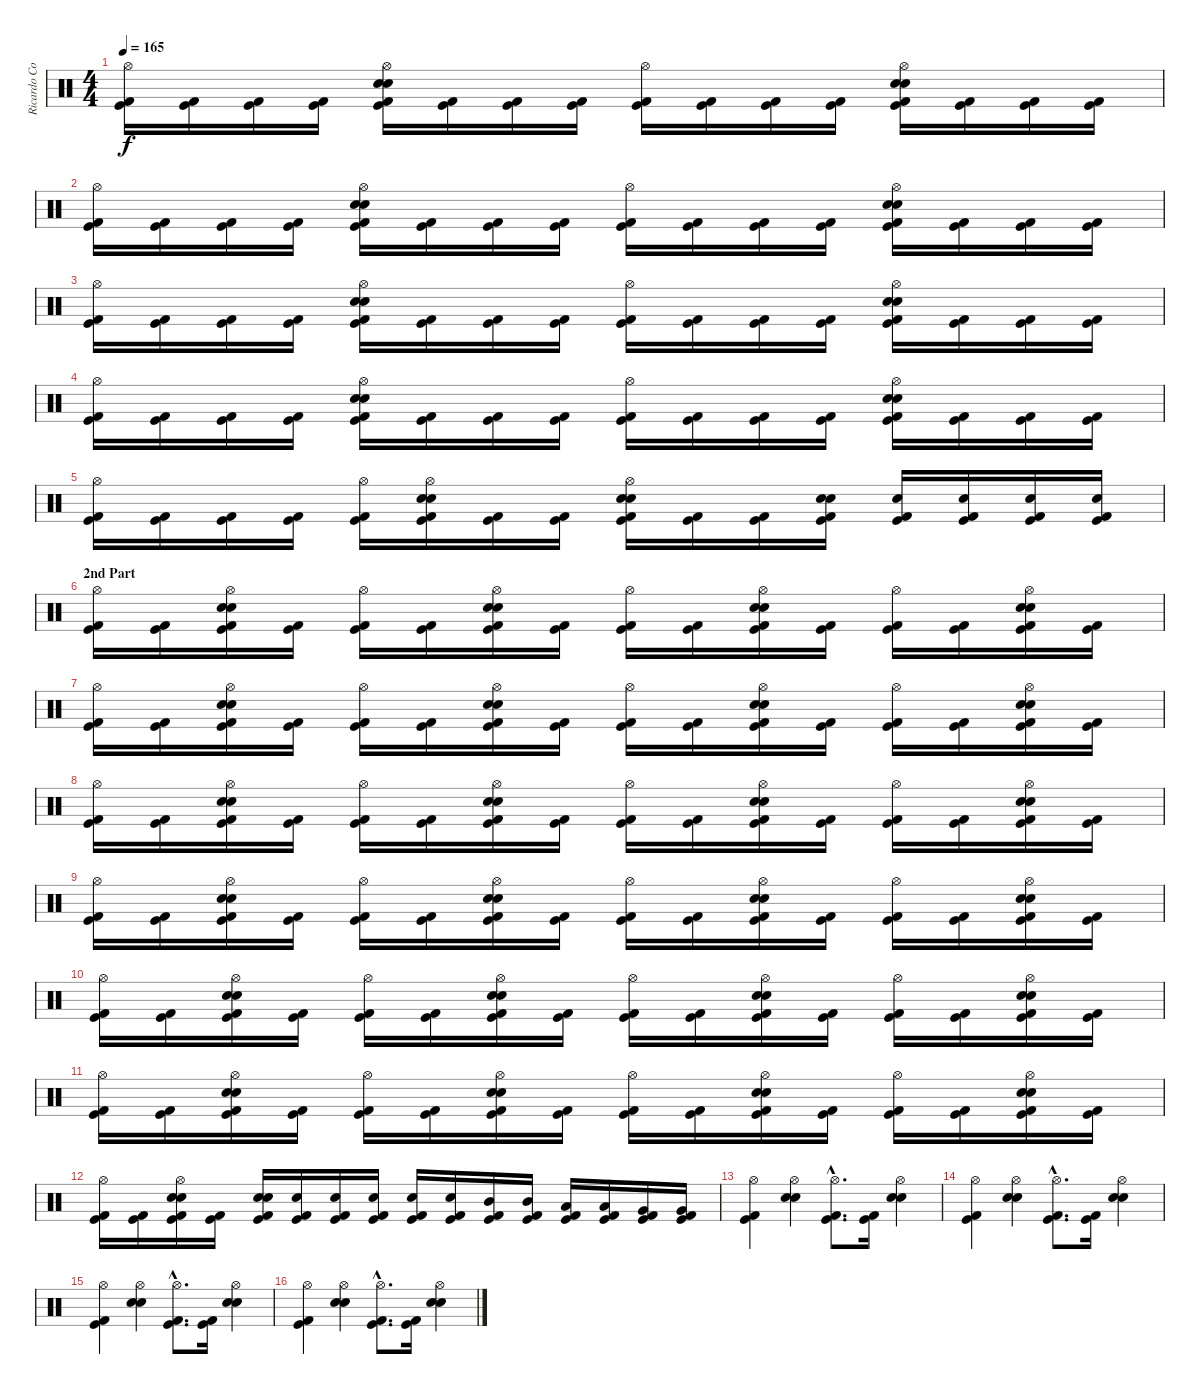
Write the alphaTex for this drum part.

\track ("Ricardo Confessori" "Ricardo Co") {instrument percussion}
\staff {score}
\articulation defaults
\ts (4 4)
\tempo 165
\clef neutral
\ks c
("Hi-Hat (open)" "Kick (hit) 2" "Kick (hit)").16{dy f} ("Kick (hit) 2" "Kick (hit)").16 ("Kick (hit) 2" "Kick (hit)").16 ("Kick (hit) 2" "Kick (hit)").16 ("Hi-Hat (open)" "Electric Snare (hit)" "Snare (hit) 2" "Kick (hit) 2" "Kick (hit)").16 ("Kick (hit) 2" "Kick (hit)").16 ("Kick (hit) 2" "Kick (hit)").16 ("Kick (hit) 2" "Kick (hit)").16 ("Hi-Hat (open)" "Kick (hit) 2" "Kick (hit)").16 ("Kick (hit) 2" "Kick (hit)").16 ("Kick (hit) 2" "Kick (hit)").16 ("Kick (hit) 2" "Kick (hit)").16 ("Hi-Hat (open)" "Electric Snare (hit)" "Snare (hit) 2" "Kick (hit) 2" "Kick (hit)").16 ("Kick (hit) 2" "Kick (hit)").16 ("Kick (hit) 2" "Kick (hit)").16 ("Kick (hit) 2" "Kick (hit)").16 |
("Hi-Hat (open)" "Kick (hit) 2" "Kick (hit)").16 ("Kick (hit) 2" "Kick (hit)").16 ("Kick (hit) 2" "Kick (hit)").16 ("Kick (hit) 2" "Kick (hit)").16 ("Hi-Hat (open)" "Electric Snare (hit)" "Snare (hit) 2" "Kick (hit) 2" "Kick (hit)").16 ("Kick (hit) 2" "Kick (hit)").16 ("Kick (hit) 2" "Kick (hit)").16 ("Kick (hit) 2" "Kick (hit)").16 ("Hi-Hat (open)" "Kick (hit) 2" "Kick (hit)").16 ("Kick (hit) 2" "Kick (hit)").16 ("Kick (hit) 2" "Kick (hit)").16 ("Kick (hit) 2" "Kick (hit)").16 ("Hi-Hat (open)" "Electric Snare (hit)" "Snare (hit) 2" "Kick (hit) 2" "Kick (hit)").16 ("Kick (hit) 2" "Kick (hit)").16 ("Kick (hit) 2" "Kick (hit)").16 ("Kick (hit) 2" "Kick (hit)").16 |
("Hi-Hat (open)" "Kick (hit) 2" "Kick (hit)").16 ("Kick (hit) 2" "Kick (hit)").16 ("Kick (hit) 2" "Kick (hit)").16 ("Kick (hit) 2" "Kick (hit)").16 ("Hi-Hat (open)" "Electric Snare (hit)" "Snare (hit) 2" "Kick (hit) 2" "Kick (hit)").16 ("Kick (hit) 2" "Kick (hit)").16 ("Kick (hit) 2" "Kick (hit)").16 ("Kick (hit) 2" "Kick (hit)").16 ("Hi-Hat (open)" "Kick (hit) 2" "Kick (hit)").16 ("Kick (hit) 2" "Kick (hit)").16 ("Kick (hit) 2" "Kick (hit)").16 ("Kick (hit) 2" "Kick (hit)").16 ("Hi-Hat (open)" "Electric Snare (hit)" "Snare (hit) 2" "Kick (hit) 2" "Kick (hit)").16 ("Kick (hit) 2" "Kick (hit)").16 ("Kick (hit) 2" "Kick (hit)").16 ("Kick (hit) 2" "Kick (hit)").16 |
("Hi-Hat (open)" "Kick (hit) 2" "Kick (hit)").16 ("Kick (hit) 2" "Kick (hit)").16 ("Kick (hit) 2" "Kick (hit)").16 ("Kick (hit) 2" "Kick (hit)").16 ("Hi-Hat (open)" "Electric Snare (hit)" "Snare (hit) 2" "Kick (hit) 2" "Kick (hit)").16 ("Kick (hit) 2" "Kick (hit)").16 ("Kick (hit) 2" "Kick (hit)").16 ("Kick (hit) 2" "Kick (hit)").16 ("Hi-Hat (open)" "Kick (hit) 2" "Kick (hit)").16 ("Kick (hit) 2" "Kick (hit)").16 ("Kick (hit) 2" "Kick (hit)").16 ("Kick (hit) 2" "Kick (hit)").16 ("Hi-Hat (open)" "Electric Snare (hit)" "Snare (hit) 2" "Kick (hit) 2" "Kick (hit)").16 ("Kick (hit) 2" "Kick (hit)").16 ("Kick (hit) 2" "Kick (hit)").16 ("Kick (hit) 2" "Kick (hit)").16 |
("Hi-Hat (open)" "Kick (hit) 2" "Kick (hit)").16 ("Kick (hit) 2" "Kick (hit)").16 ("Kick (hit) 2" "Kick (hit)").16 ("Kick (hit) 2" "Kick (hit)").16 ("Hi-Hat (open)" "Kick (hit) 2" "Kick (hit)").16 ("Hi-Hat (open)" "Electric Snare (hit)" "Snare (hit) 2" "Kick (hit) 2" "Kick (hit)").16 ("Kick (hit) 2" "Kick (hit)").16 ("Kick (hit) 2" "Kick (hit)").16 ("Hi-Hat (open)" "Electric Snare (hit)" "Snare (hit) 2" "Kick (hit) 2" "Kick (hit)").16 ("Kick (hit) 2" "Kick (hit)").16 ("Kick (hit) 2" "Kick (hit)").16 ("Electric Snare (hit)" "Snare (hit) 2" "Kick (hit) 2" "Kick (hit)").16 ("Electric Snare (hit)" "Kick (hit) 2" "Kick (hit)").16 ("Electric Snare (hit)" "Kick (hit) 2" "Kick (hit)").16 ("Electric Snare (hit)" "Kick (hit) 2" "Kick (hit)").16 ("Electric Snare (hit)" "Kick (hit) 2" "Kick (hit)").16 |
\section ("" "2nd Part")
("Hi-Hat (open)" "Kick (hit) 2" "Kick (hit)").16 ("Kick (hit) 2" "Kick (hit)").16 ("Hi-Hat (open)" "Electric Snare (hit)" "Snare (hit) 2" "Kick (hit) 2" "Kick (hit)").16 ("Kick (hit) 2" "Kick (hit)").16 ("Hi-Hat (open)" "Kick (hit) 2" "Kick (hit)").16 ("Kick (hit) 2" "Kick (hit)").16 ("Hi-Hat (open)" "Electric Snare (hit)" "Snare (hit) 2" "Kick (hit) 2" "Kick (hit)").16 ("Kick (hit) 2" "Kick (hit)").16 ("Hi-Hat (open)" "Kick (hit) 2" "Kick (hit)").16 ("Kick (hit) 2" "Kick (hit)").16 ("Hi-Hat (open)" "Electric Snare (hit)" "Snare (hit) 2" "Kick (hit) 2" "Kick (hit)").16 ("Kick (hit) 2" "Kick (hit)").16 ("Hi-Hat (open)" "Kick (hit) 2" "Kick (hit)").16 ("Kick (hit) 2" "Kick (hit)").16 ("Hi-Hat (open)" "Electric Snare (hit)" "Snare (hit) 2" "Kick (hit) 2" "Kick (hit)").16 ("Kick (hit) 2" "Kick (hit)").16 |
("Hi-Hat (open)" "Kick (hit) 2" "Kick (hit)").16 ("Kick (hit) 2" "Kick (hit)").16 ("Hi-Hat (open)" "Electric Snare (hit)" "Snare (hit) 2" "Kick (hit) 2" "Kick (hit)").16 ("Kick (hit) 2" "Kick (hit)").16 ("Hi-Hat (open)" "Kick (hit) 2" "Kick (hit)").16 ("Kick (hit) 2" "Kick (hit)").16 ("Hi-Hat (open)" "Electric Snare (hit)" "Snare (hit) 2" "Kick (hit) 2" "Kick (hit)").16 ("Kick (hit) 2" "Kick (hit)").16 ("Hi-Hat (open)" "Kick (hit) 2" "Kick (hit)").16 ("Kick (hit) 2" "Kick (hit)").16 ("Hi-Hat (open)" "Electric Snare (hit)" "Snare (hit) 2" "Kick (hit) 2" "Kick (hit)").16 ("Kick (hit) 2" "Kick (hit)").16 ("Hi-Hat (open)" "Kick (hit) 2" "Kick (hit)").16 ("Kick (hit) 2" "Kick (hit)").16 ("Hi-Hat (open)" "Electric Snare (hit)" "Snare (hit) 2" "Kick (hit) 2" "Kick (hit)").16 ("Kick (hit) 2" "Kick (hit)").16 |
("Hi-Hat (open)" "Kick (hit) 2" "Kick (hit)").16 ("Kick (hit) 2" "Kick (hit)").16 ("Hi-Hat (open)" "Electric Snare (hit)" "Snare (hit) 2" "Kick (hit) 2" "Kick (hit)").16 ("Kick (hit) 2" "Kick (hit)").16 ("Hi-Hat (open)" "Kick (hit) 2" "Kick (hit)").16 ("Kick (hit) 2" "Kick (hit)").16 ("Hi-Hat (open)" "Electric Snare (hit)" "Snare (hit) 2" "Kick (hit) 2" "Kick (hit)").16 ("Kick (hit) 2" "Kick (hit)").16 ("Hi-Hat (open)" "Kick (hit) 2" "Kick (hit)").16 ("Kick (hit) 2" "Kick (hit)").16 ("Hi-Hat (open)" "Electric Snare (hit)" "Snare (hit) 2" "Kick (hit) 2" "Kick (hit)").16 ("Kick (hit) 2" "Kick (hit)").16 ("Hi-Hat (open)" "Kick (hit) 2" "Kick (hit)").16 ("Kick (hit) 2" "Kick (hit)").16 ("Hi-Hat (open)" "Electric Snare (hit)" "Snare (hit) 2" "Kick (hit) 2" "Kick (hit)").16 ("Kick (hit) 2" "Kick (hit)").16 |
("Hi-Hat (open)" "Kick (hit) 2" "Kick (hit)").16 ("Kick (hit) 2" "Kick (hit)").16 ("Hi-Hat (open)" "Electric Snare (hit)" "Snare (hit) 2" "Kick (hit) 2" "Kick (hit)").16 ("Kick (hit) 2" "Kick (hit)").16 ("Hi-Hat (open)" "Kick (hit) 2" "Kick (hit)").16 ("Kick (hit) 2" "Kick (hit)").16 ("Hi-Hat (open)" "Electric Snare (hit)" "Snare (hit) 2" "Kick (hit) 2" "Kick (hit)").16 ("Kick (hit) 2" "Kick (hit)").16 ("Hi-Hat (open)" "Kick (hit) 2" "Kick (hit)").16 ("Kick (hit) 2" "Kick (hit)").16 ("Hi-Hat (open)" "Electric Snare (hit)" "Snare (hit) 2" "Kick (hit) 2" "Kick (hit)").16 ("Kick (hit) 2" "Kick (hit)").16 ("Hi-Hat (open)" "Kick (hit) 2" "Kick (hit)").16 ("Kick (hit) 2" "Kick (hit)").16 ("Hi-Hat (open)" "Electric Snare (hit)" "Snare (hit) 2" "Kick (hit) 2" "Kick (hit)").16 ("Kick (hit) 2" "Kick (hit)").16 |
("Hi-Hat (open)" "Kick (hit) 2" "Kick (hit)").16 ("Kick (hit) 2" "Kick (hit)").16 ("Hi-Hat (open)" "Electric Snare (hit)" "Snare (hit) 2" "Kick (hit) 2" "Kick (hit)").16 ("Kick (hit) 2" "Kick (hit)").16 ("Hi-Hat (open)" "Kick (hit) 2" "Kick (hit)").16 ("Kick (hit) 2" "Kick (hit)").16 ("Hi-Hat (open)" "Electric Snare (hit)" "Snare (hit) 2" "Kick (hit) 2" "Kick (hit)").16 ("Kick (hit) 2" "Kick (hit)").16 ("Hi-Hat (open)" "Kick (hit) 2" "Kick (hit)").16 ("Kick (hit) 2" "Kick (hit)").16 ("Hi-Hat (open)" "Electric Snare (hit)" "Snare (hit) 2" "Kick (hit) 2" "Kick (hit)").16 ("Kick (hit) 2" "Kick (hit)").16 ("Hi-Hat (open)" "Kick (hit) 2" "Kick (hit)").16 ("Kick (hit) 2" "Kick (hit)").16 ("Hi-Hat (open)" "Electric Snare (hit)" "Snare (hit) 2" "Kick (hit) 2" "Kick (hit)").16 ("Kick (hit) 2" "Kick (hit)").16 |
("Hi-Hat (open)" "Kick (hit) 2" "Kick (hit)").16 ("Kick (hit) 2" "Kick (hit)").16 ("Hi-Hat (open)" "Electric Snare (hit)" "Snare (hit) 2" "Kick (hit) 2" "Kick (hit)").16 ("Kick (hit) 2" "Kick (hit)").16 ("Hi-Hat (open)" "Kick (hit) 2" "Kick (hit)").16 ("Kick (hit) 2" "Kick (hit)").16 ("Hi-Hat (open)" "Electric Snare (hit)" "Snare (hit) 2" "Kick (hit) 2" "Kick (hit)").16 ("Kick (hit) 2" "Kick (hit)").16 ("Hi-Hat (open)" "Kick (hit) 2" "Kick (hit)").16 ("Kick (hit) 2" "Kick (hit)").16 ("Hi-Hat (open)" "Electric Snare (hit)" "Snare (hit) 2" "Kick (hit) 2" "Kick (hit)").16 ("Kick (hit) 2" "Kick (hit)").16 ("Hi-Hat (open)" "Kick (hit) 2" "Kick (hit)").16 ("Kick (hit) 2" "Kick (hit)").16 ("Hi-Hat (open)" "Electric Snare (hit)" "Snare (hit) 2" "Kick (hit) 2" "Kick (hit)").16 ("Kick (hit) 2" "Kick (hit)").16 |
("Hi-Hat (open)" "Kick (hit) 2" "Kick (hit)").16 ("Kick (hit) 2" "Kick (hit)").16 ("Hi-Hat (open)" "Electric Snare (hit)" "Snare (hit) 2" "Kick (hit) 2" "Kick (hit)").16 ("Kick (hit) 2" "Kick (hit)").16 ("Electric Snare (hit)" "Snare (hit) 2" "Kick (hit) 2" "Kick (hit)").16 ("Electric Snare (hit)" "Kick (hit) 2" "Kick (hit)").16 ("Electric Snare (hit)" "Kick (hit) 2" "Kick (hit)").16 ("Electric Snare (hit)" "Kick (hit) 2" "Kick (hit)").16 ("Electric Snare (hit)" "Kick (hit) 2" "Kick (hit)").16 ("Electric Snare (hit)" "Kick (hit) 2" "Kick (hit)").16 ("Mid Tom (hit)" "Kick (hit) 2" "Kick (hit)").16 ("Mid Tom (hit)" "Kick (hit) 2" "Kick (hit)").16 ("Low Tom (hit)" "Kick (hit) 2" "Kick (hit)").16 ("Low Tom (hit)" "Kick (hit) 2" "Kick (hit)").16 ("Very Low Tom (hit)" "Kick (hit) 2" "Kick (hit)").16 ("Very Low Tom (hit)" "Kick (hit) 2" "Kick (hit)").16 |
("Hi-Hat (open)" "Kick (hit) 2" "Kick (hit)").4 ("Hi-Hat (open)" "Electric Snare (hit)" "Snare (hit) 2").4 ("Hi-Hat (open)"{hac} "Kick (hit) 2"{hac} "Kick (hit)"{hac}).8{d} ("Kick (hit) 2" "Kick (hit)").16 ("Hi-Hat (open)" "Electric Snare (hit)" "Snare (hit) 2").4 |
("Hi-Hat (open)" "Kick (hit) 2" "Kick (hit)").4 ("Hi-Hat (open)" "Electric Snare (hit)" "Snare (hit) 2").4 ("Hi-Hat (open)"{hac} "Kick (hit) 2"{hac} "Kick (hit)"{hac}).8{d} ("Kick (hit) 2" "Kick (hit)").16 ("Hi-Hat (open)" "Electric Snare (hit)" "Snare (hit) 2").4 |
("Hi-Hat (open)" "Kick (hit) 2" "Kick (hit)").4 ("Hi-Hat (open)" "Electric Snare (hit)" "Snare (hit) 2").4 ("Hi-Hat (open)"{hac} "Kick (hit) 2"{hac} "Kick (hit)"{hac}).8{d} ("Kick (hit) 2" "Kick (hit)").16 ("Hi-Hat (open)" "Electric Snare (hit)" "Snare (hit) 2").4 |
("Hi-Hat (open)" "Kick (hit) 2" "Kick (hit)").4 ("Hi-Hat (open)" "Electric Snare (hit)" "Snare (hit) 2").4 ("Hi-Hat (open)"{hac} "Kick (hit) 2"{hac} "Kick (hit)"{hac}).8{d} ("Kick (hit) 2" "Kick (hit)").16 ("Hi-Hat (open)" "Electric Snare (hit)" "Snare (hit) 2").4
